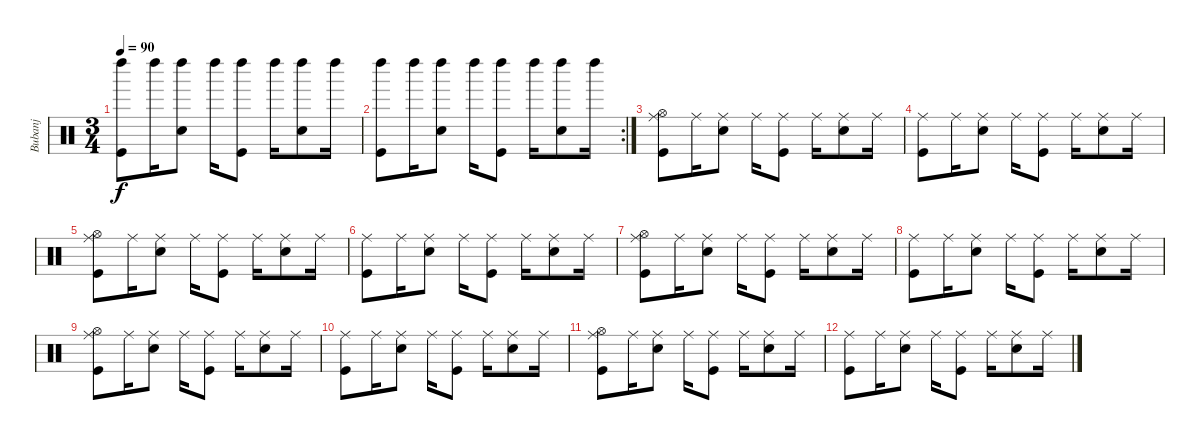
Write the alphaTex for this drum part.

\track ("Bubanj" "Bubanj") {instrument percussion}
\staff {score}
\articulation defaults
\ts (3 4)
\tempo 90
\clef neutral
\ks c
("Left Maraca (hit)" "Kick (hit)").8{dy f} "Left Maraca (hit)".16 ("Left Maraca (hit)" "Snare (hit) 2").8 "Left Maraca (hit)".16 ("Left Maraca (hit)" "Kick (hit)").8 "Left Maraca (hit)".16 ("Left Maraca (hit)" "Snare (hit) 2").8 "Left Maraca (hit)".16 |
\rc 2
("Left Maraca (hit)" "Kick (hit)").8 "Left Maraca (hit)".16 ("Left Maraca (hit)" "Snare (hit) 2").8 "Left Maraca (hit)".16 ("Left Maraca (hit)" "Kick (hit)").8 "Left Maraca (hit)".16 ("Left Maraca (hit)" "Snare (hit) 2").8 "Left Maraca (hit)".16 |
("Ride (middle)" "Hi-Hat (open)" "Kick (hit)").8 "Ride (middle)".16 ("Ride (middle)" "Snare (hit) 2").8 "Ride (middle)".16 ("Ride (middle)" "Kick (hit)").8 "Ride (middle)".16 ("Ride (middle)" "Snare (hit) 2").8 "Ride (middle)".16 |
("Ride (middle)" "Kick (hit)").8 "Ride (middle)".16 ("Ride (middle)" "Snare (hit) 2").8 "Ride (middle)".16 ("Ride (middle)" "Kick (hit)").8 "Ride (middle)".16 ("Ride (middle)" "Snare (hit) 2").8 "Ride (middle)".16 |
("Ride (middle)" "Hi-Hat (open)" "Kick (hit)").8 "Ride (middle)".16 ("Ride (middle)" "Snare (hit) 2").8 "Ride (middle)".16 ("Ride (middle)" "Kick (hit)").8 "Ride (middle)".16 ("Ride (middle)" "Snare (hit) 2").8 "Ride (middle)".16 |
("Ride (middle)" "Kick (hit)").8 "Ride (middle)".16 ("Ride (middle)" "Snare (hit) 2").8 "Ride (middle)".16 ("Ride (middle)" "Kick (hit)").8 "Ride (middle)".16 ("Ride (middle)" "Snare (hit) 2").8 "Ride (middle)".16 |
("Ride (middle)" "Hi-Hat (open)" "Kick (hit)").8 "Ride (middle)".16 ("Ride (middle)" "Snare (hit) 2").8 "Ride (middle)".16 ("Ride (middle)" "Kick (hit)").8 "Ride (middle)".16 ("Ride (middle)" "Snare (hit) 2").8 "Ride (middle)".16 |
("Ride (middle)" "Kick (hit)").8 "Ride (middle)".16 ("Ride (middle)" "Snare (hit) 2").8 "Ride (middle)".16 ("Ride (middle)" "Kick (hit)").8 "Ride (middle)".16 ("Ride (middle)" "Snare (hit) 2").8 "Ride (middle)".16 |
("Ride (middle)" "Hi-Hat (open)" "Kick (hit)").8 "Ride (middle)".16 ("Ride (middle)" "Snare (hit) 2").8 "Ride (middle)".16 ("Ride (middle)" "Kick (hit)").8 "Ride (middle)".16 ("Ride (middle)" "Snare (hit) 2").8 "Ride (middle)".16 |
("Ride (middle)" "Kick (hit)").8 "Ride (middle)".16 ("Ride (middle)" "Snare (hit) 2").8 "Ride (middle)".16 ("Ride (middle)" "Kick (hit)").8 "Ride (middle)".16 ("Ride (middle)" "Snare (hit) 2").8 "Ride (middle)".16 |
("Ride (middle)" "Hi-Hat (open)" "Kick (hit)").8 "Ride (middle)".16 ("Ride (middle)" "Snare (hit) 2").8 "Ride (middle)".16 ("Ride (middle)" "Kick (hit)").8 "Ride (middle)".16 ("Ride (middle)" "Snare (hit) 2").8 "Ride (middle)".16 |
("Ride (middle)" "Kick (hit)").8 "Ride (middle)".16 ("Ride (middle)" "Snare (hit) 2").8 "Ride (middle)".16 ("Ride (middle)" "Kick (hit)").8 "Ride (middle)".16 ("Ride (middle)" "Snare (hit) 2").8 "Ride (middle)".16
